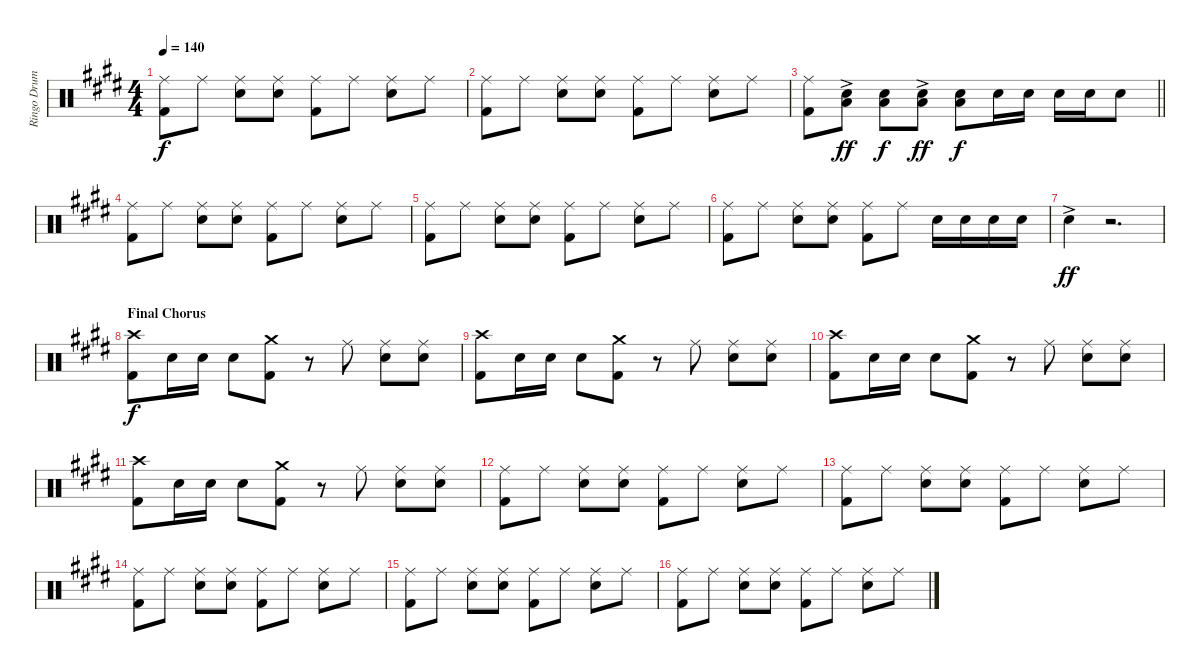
\track ("Ringo Drums" "Ringo Drum") {instrument percussion}
\staff {score}
\articulation defaults
\ts (4 4)
\tempo 140
\clef neutral
\ks e
("Ride (middle)" "Kick (hit) 2").8{dy f} "Ride (middle)".8 ("Ride (middle)" "Snare (hit) 2").8 ("Ride (middle)" "Snare (hit) 2").8 ("Ride (middle)" "Kick (hit) 2").8 "Ride (middle)".8 ("Ride (middle)" "Snare (hit) 2").8 "Ride (middle)".8 |
("Ride (middle)" "Kick (hit) 2").8 "Ride (middle)".8 ("Ride (middle)" "Snare (hit) 2").8 ("Ride (middle)" "Snare (hit) 2").8 ("Ride (middle)" "Kick (hit) 2").8 "Ride (middle)".8 ("Ride (middle)" "Snare (hit) 2").8 "Ride (middle)".8 |
\barLineRight lightlight
("Ride (middle)" "Kick (hit) 2").8 ("Low Tom (hit)"{ac} "Snare (hit) 2"{ac}).8{dy ff} ("Low Tom (hit)" "Snare (hit) 2").8{dy f} ("Low Tom (hit)"{ac} "Snare (hit) 2"{ac}).8{dy ff} ("Low Tom (hit)" "Snare (hit) 2").8{dy f} "Snare (hit) 2".16 "Electric Snare (hit)".16 "Snare (hit) 2".16 "Electric Snare (hit)".16 "Snare (hit) 2".8 |
("Ride (middle)" "Kick (hit) 2").8 "Ride (middle)".8 ("Ride (middle)" "Snare (hit) 2").8 ("Ride (middle)" "Snare (hit) 2").8 ("Ride (middle)" "Kick (hit) 2").8 "Ride (middle)".8 ("Ride (middle)" "Snare (hit) 2").8 "Ride (middle)".8 |
("Ride (middle)" "Kick (hit) 2").8 "Ride (middle)".8 ("Ride (middle)" "Snare (hit) 2").8 ("Ride (middle)" "Snare (hit) 2").8 ("Ride (middle)" "Kick (hit) 2").8 "Ride (middle)".8 ("Ride (middle)" "Snare (hit) 2").8 "Ride (middle)".8 |
("Ride (middle)" "Kick (hit) 2").8 "Ride (middle)".8 ("Ride (middle)" "Snare (hit) 2").8 ("Ride (middle)" "Snare (hit) 2").8 ("Ride (middle)" "Kick (hit) 2").8 "Ride (middle)".8 "Snare (hit) 2".16 "Electric Snare (hit)".16 "Snare (hit) 2".16 "Electric Snare (hit)".16 |
"Snare (hit) 2"{ac}.4{dy ff} r.2{d} |
\section ("" "Final Chorus")
("Crash high (hit)" "Kick (hit) 2").8{dy f} "Snare (hit) 2".16 "Electric Snare (hit)".16 "Snare (hit) 2".8 ("Crash medium (hit)" "Kick (hit) 2").8 r.8 "Ride (middle)".8 ("Ride (middle)" "Snare (hit) 2").8 ("Ride (middle)" "Snare (hit) 2").8 |
("Crash high (hit)" "Kick (hit) 2").8 "Snare (hit) 2".16 "Electric Snare (hit)".16 "Snare (hit) 2".8 ("Crash medium (hit)" "Kick (hit) 2").8 r.8 "Ride (middle)".8 ("Ride (middle)" "Snare (hit) 2").8 ("Ride (middle)" "Snare (hit) 2").8 |
("Crash high (hit)" "Kick (hit) 2").8 "Snare (hit) 2".16 "Electric Snare (hit)".16 "Snare (hit) 2".8 ("Crash medium (hit)" "Kick (hit) 2").8 r.8 "Ride (middle)".8 ("Ride (middle)" "Snare (hit) 2").8 ("Ride (middle)" "Snare (hit) 2").8 |
("Crash high (hit)" "Kick (hit) 2").8 "Snare (hit) 2".16 "Electric Snare (hit)".16 "Snare (hit) 2".8 ("Crash medium (hit)" "Kick (hit) 2").8 r.8 "Ride (middle)".8 ("Ride (middle)" "Snare (hit) 2").8 ("Ride (middle)" "Snare (hit) 2").8 |
("Ride (middle)" "Kick (hit) 2").8 "Ride (middle)".8 ("Ride (middle)" "Snare (hit) 2").8 ("Ride (middle)" "Snare (hit) 2").8 ("Ride (middle)" "Kick (hit) 2").8 "Ride (middle)".8 ("Ride (middle)" "Snare (hit) 2").8 "Ride (middle)".8 |
("Ride (middle)" "Kick (hit) 2").8 "Ride (middle)".8 ("Ride (middle)" "Snare (hit) 2").8 ("Ride (middle)" "Snare (hit) 2").8 ("Ride (middle)" "Kick (hit) 2").8 "Ride (middle)".8 ("Ride (middle)" "Snare (hit) 2").8 "Ride (middle)".8 |
("Ride (middle)" "Kick (hit) 2").8 "Ride (middle)".8 ("Ride (middle)" "Snare (hit) 2").8 ("Ride (middle)" "Snare (hit) 2").8 ("Ride (middle)" "Kick (hit) 2").8 "Ride (middle)".8 ("Ride (middle)" "Snare (hit) 2").8 "Ride (middle)".8 |
("Ride (middle)" "Kick (hit) 2").8 "Ride (middle)".8 ("Ride (middle)" "Snare (hit) 2").8 ("Ride (middle)" "Snare (hit) 2").8 ("Ride (middle)" "Kick (hit) 2").8 "Ride (middle)".8 ("Ride (middle)" "Snare (hit) 2").8 "Ride (middle)".8 |
("Ride (middle)" "Kick (hit) 2").8 "Ride (middle)".8 ("Ride (middle)" "Snare (hit) 2").8 ("Ride (middle)" "Snare (hit) 2").8 ("Ride (middle)" "Kick (hit) 2").8 "Ride (middle)".8 ("Ride (middle)" "Snare (hit) 2").8 "Ride (middle)".8
